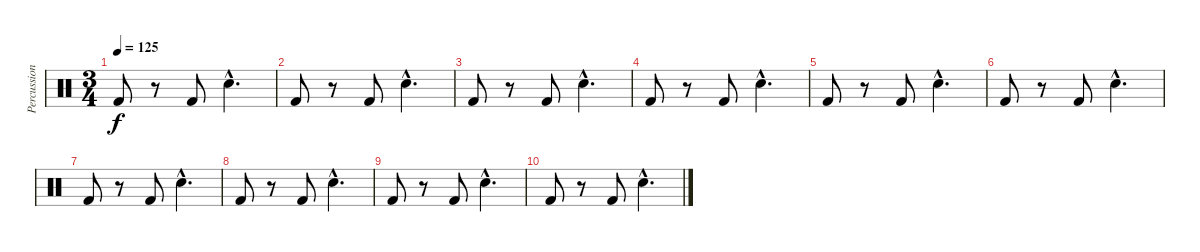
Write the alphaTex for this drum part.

\track ("Percussion" "Percussion") {instrument percussion}
\staff {score}
\articulation defaults
\ts (3 4)
\tempo 125
\clef neutral
\ks c "Kick (hit) 2".8{dy f}
r.8 "Kick (hit) 2".8 "Electric Snare (hit)"{hac}.4{d} |
"Kick (hit) 2".8 r.8 "Kick (hit) 2".8 "Electric Snare (hit)"{hac}.4{d} |
"Kick (hit) 2".8 r.8 "Kick (hit) 2".8 "Electric Snare (hit)"{hac}.4{d} |
"Kick (hit) 2".8 r.8 "Kick (hit) 2".8 "Electric Snare (hit)"{hac}.4{d} |
"Kick (hit) 2".8 r.8 "Kick (hit) 2".8 "Electric Snare (hit)"{hac}.4{d} |
"Kick (hit) 2".8 r.8 "Kick (hit) 2".8 "Electric Snare (hit)"{hac}.4{d} |
"Kick (hit) 2".8 r.8 "Kick (hit) 2".8 "Electric Snare (hit)"{hac}.4{d} |
"Kick (hit) 2".8 r.8 "Kick (hit) 2".8 "Electric Snare (hit)"{hac}.4{d} |
"Kick (hit) 2".8 r.8 "Kick (hit) 2".8 "Electric Snare (hit)"{hac}.4{d} |
"Kick (hit) 2".8 r.8 "Kick (hit) 2".8 "Electric Snare (hit)"{hac}.4{d}
